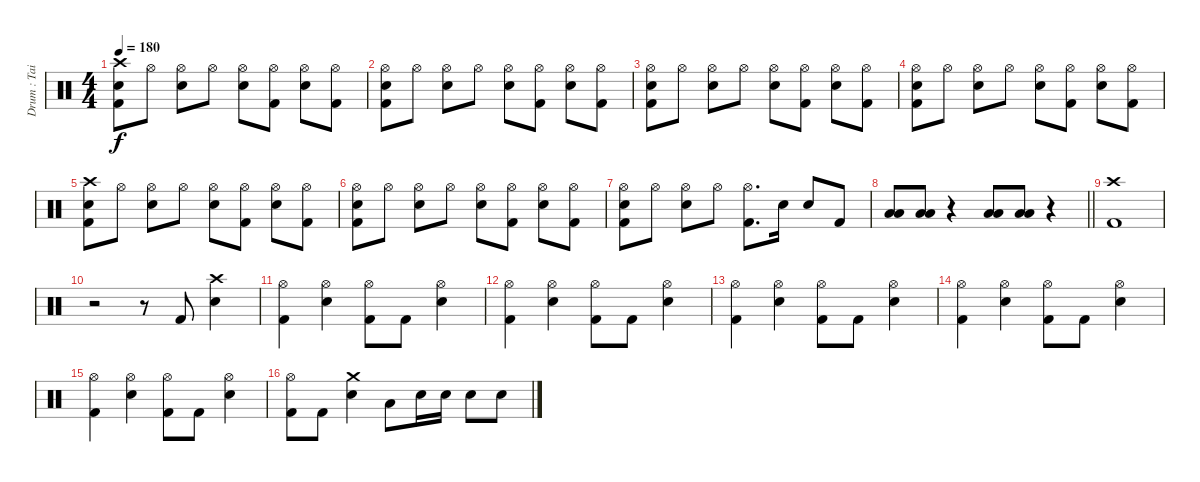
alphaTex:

\track ("Drum : Tainaka Ritsu - Chan" "Drum : Tai") {instrument percussion}
\staff {score}
\articulation defaults
\ts (4 4)
\tempo 180
\clef neutral
\ks c
("Crash high (hit)" "Electric Snare (hit)" "Kick (hit) 2").8{dy f} "Hi-Hat (open)".8 ("Hi-Hat (open)" "Electric Snare (hit)").8 "Hi-Hat (open)".8 ("Hi-Hat (open)" "Electric Snare (hit)").8 ("Hi-Hat (open)" "Kick (hit) 2").8 ("Hi-Hat (open)" "Electric Snare (hit)").8 ("Hi-Hat (open)" "Kick (hit) 2").8 |
("Hi-Hat (open)" "Electric Snare (hit)" "Kick (hit) 2").8 "Hi-Hat (open)".8 ("Hi-Hat (open)" "Electric Snare (hit)").8 "Hi-Hat (open)".8 ("Hi-Hat (open)" "Electric Snare (hit)").8 ("Hi-Hat (open)" "Kick (hit) 2").8 ("Hi-Hat (open)" "Electric Snare (hit)").8 ("Hi-Hat (open)" "Kick (hit) 2").8 |
("Hi-Hat (open)" "Electric Snare (hit)" "Kick (hit) 2").8 "Hi-Hat (open)".8 ("Hi-Hat (open)" "Electric Snare (hit)").8 "Hi-Hat (open)".8 ("Hi-Hat (open)" "Electric Snare (hit)").8 ("Hi-Hat (open)" "Kick (hit) 2").8 ("Hi-Hat (open)" "Electric Snare (hit)").8 ("Hi-Hat (open)" "Kick (hit) 2").8 |
("Hi-Hat (open)" "Electric Snare (hit)" "Kick (hit) 2").8 "Hi-Hat (open)".8 ("Hi-Hat (open)" "Electric Snare (hit)").8 "Hi-Hat (open)".8 ("Hi-Hat (open)" "Electric Snare (hit)").8 ("Hi-Hat (open)" "Kick (hit) 2").8 ("Hi-Hat (open)" "Electric Snare (hit)").8 ("Hi-Hat (open)" "Kick (hit) 2").8 |
("Crash high (hit)" "Electric Snare (hit)" "Kick (hit) 2").8 "Hi-Hat (open)".8 ("Hi-Hat (open)" "Electric Snare (hit)").8 "Hi-Hat (open)".8 ("Hi-Hat (open)" "Electric Snare (hit)").8 ("Hi-Hat (open)" "Kick (hit) 2").8 ("Hi-Hat (open)" "Electric Snare (hit)").8 ("Hi-Hat (open)" "Kick (hit) 2").8 |
("Hi-Hat (open)" "Electric Snare (hit)" "Kick (hit) 2").8 "Hi-Hat (open)".8 ("Hi-Hat (open)" "Electric Snare (hit)").8 "Hi-Hat (open)".8 ("Hi-Hat (open)" "Electric Snare (hit)").8 ("Hi-Hat (open)" "Kick (hit) 2").8 ("Hi-Hat (open)" "Electric Snare (hit)").8 ("Hi-Hat (open)" "Kick (hit) 2").8 |
("Hi-Hat (open)" "Electric Snare (hit)" "Kick (hit) 2").8 "Hi-Hat (open)".8 ("Hi-Hat (open)" "Electric Snare (hit)").8 "Hi-Hat (open)".8 ("Hi-Hat (open)" "Kick (hit) 2").8{d} "Electric Snare (hit)".16 "Electric Snare (hit)".8 "Kick (hit) 2".8 |
\barLineRight lightlight
("Low Tom (hit)" "Low Floor Tom (hit)").8 ("Low Tom (hit)" "Low Floor Tom (hit)").8 r.4 ("Low Tom (hit)" "Low Floor Tom (hit)").8 ("Low Tom (hit)" "Low Floor Tom (hit)").8 r.4 |
("Crash high (hit)" "Kick (hit) 2").1 |
r.2 r.8 "Kick (hit) 2".8 ("Crash high (hit)" "Electric Snare (hit)").4 |
("Hi-Hat (open)" "Kick (hit) 2").4 ("Hi-Hat (open)" "Electric Snare (hit)").4 ("Hi-Hat (open)" "Kick (hit) 2").8 "Kick (hit) 2".8 ("Hi-Hat (open)" "Electric Snare (hit)").4 |
("Hi-Hat (open)" "Kick (hit) 2").4 ("Hi-Hat (open)" "Electric Snare (hit)").4 ("Hi-Hat (open)" "Kick (hit) 2").8 "Kick (hit) 2".8 ("Hi-Hat (open)" "Electric Snare (hit)").4 |
("Hi-Hat (open)" "Kick (hit) 2").4 ("Hi-Hat (open)" "Electric Snare (hit)").4 ("Hi-Hat (open)" "Kick (hit) 2").8 "Kick (hit) 2".8 ("Hi-Hat (open)" "Electric Snare (hit)").4 |
("Hi-Hat (open)" "Kick (hit) 2").4 ("Hi-Hat (open)" "Electric Snare (hit)").4 ("Hi-Hat (open)" "Kick (hit) 2").8 "Kick (hit) 2".8 ("Hi-Hat (open)" "Electric Snare (hit)").4 |
("Hi-Hat (open)" "Kick (hit) 2").4 ("Hi-Hat (open)" "Electric Snare (hit)").4 ("Hi-Hat (open)" "Kick (hit) 2").8 "Kick (hit) 2".8 ("Hi-Hat (open)" "Electric Snare (hit)").4 |
("Hi-Hat (open)" "Kick (hit) 2").8 "Kick (hit) 2".8 ("Crash medium (hit)" "Electric Snare (hit)").4 "Low Tom (hit)".8 "Electric Snare (hit)".16 "Electric Snare (hit)".16 "Electric Snare (hit)".8 "Electric Snare (hit)".8
